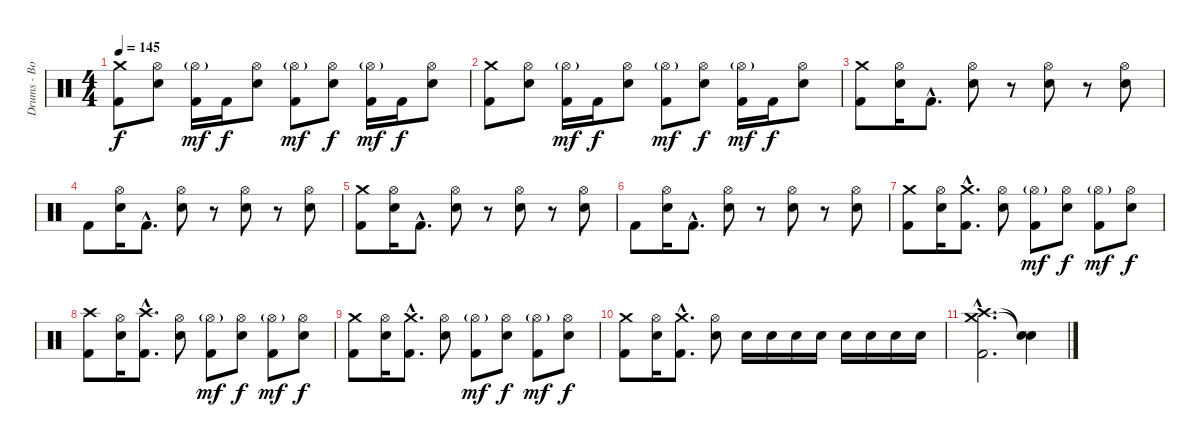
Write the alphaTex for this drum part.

\track ("Drums - Bobby Schayer" "Drums - Bo") {instrument percussion}
\staff {score}
\articulation defaults
\ts (4 4)
\tempo 145
\clef neutral
\ks c
("Crash medium (hit)" "Kick (hit) 2").8{dy f} ("Hi-Hat (open)" "Electric Snare (hit)").8 ("Hi-Hat (open)"{g} "Kick (hit) 2").16{dy mf} "Kick (hit) 2".16{dy f} ("Hi-Hat (open)" "Electric Snare (hit)").8 ("Hi-Hat (open)"{g} "Kick (hit) 2").8{dy mf} ("Hi-Hat (open)" "Electric Snare (hit)").8{dy f} ("Hi-Hat (open)"{g} "Kick (hit) 2").16{dy mf} "Kick (hit) 2".16{dy f} ("Hi-Hat (open)" "Electric Snare (hit)").8 |
("Crash medium (hit)" "Kick (hit) 2").8 ("Hi-Hat (open)" "Electric Snare (hit)").8 ("Hi-Hat (open)"{g} "Kick (hit) 2").16{dy mf} "Kick (hit) 2".16{dy f} ("Hi-Hat (open)" "Electric Snare (hit)").8 ("Hi-Hat (open)"{g} "Kick (hit) 2").8{dy mf} ("Hi-Hat (open)" "Electric Snare (hit)").8{dy f} ("Hi-Hat (open)"{g} "Kick (hit) 2").16{dy mf} "Kick (hit) 2".16{dy f} ("Hi-Hat (open)" "Electric Snare (hit)").8 |
("Crash medium (hit)" "Kick (hit) 2").8 ("Hi-Hat (open)" "Electric Snare (hit)").16 "Kick (hit) 2"{hac}.8{d} ("Hi-Hat (open)" "Electric Snare (hit)").8 r.8 ("Hi-Hat (open)" "Electric Snare (hit)").8 r.8 ("Hi-Hat (open)" "Electric Snare (hit)").8 |
"Kick (hit) 2".8 ("Hi-Hat (open)" "Electric Snare (hit)").16 "Kick (hit) 2"{hac}.8{d} ("Hi-Hat (open)" "Electric Snare (hit)").8 r.8 ("Hi-Hat (open)" "Electric Snare (hit)").8 r.8 ("Hi-Hat (open)" "Electric Snare (hit)").8 |
("Crash medium (hit)" "Kick (hit) 2").8 ("Hi-Hat (open)" "Electric Snare (hit)").16 "Kick (hit) 2"{hac}.8{d} ("Hi-Hat (open)" "Electric Snare (hit)").8 r.8 ("Hi-Hat (open)" "Electric Snare (hit)").8 r.8 ("Hi-Hat (open)" "Electric Snare (hit)").8 |
"Kick (hit) 2".8 ("Hi-Hat (open)" "Electric Snare (hit)").16 "Kick (hit) 2"{hac}.8{d} ("Hi-Hat (open)" "Electric Snare (hit)").8 r.8 ("Hi-Hat (open)" "Electric Snare (hit)").8 r.8 ("Hi-Hat (open)" "Electric Snare (hit)").8 |
("Crash medium (hit)" "Kick (hit) 2").8 ("Hi-Hat (open)" "Electric Snare (hit)").16 ("Crash medium (hit)"{hac} "Kick (hit) 2"{hac}).8{d} ("Hi-Hat (open)" "Electric Snare (hit)").8 ("Hi-Hat (open)"{g} "Kick (hit) 2").8{dy mf} ("Hi-Hat (open)" "Electric Snare (hit)").8{dy f} ("Hi-Hat (open)"{g} "Kick (hit) 2").8{dy mf} ("Hi-Hat (open)" "Electric Snare (hit)").8{dy f} |
("Crash high (hit)" "Kick (hit) 2").8 ("Hi-Hat (open)" "Electric Snare (hit)").16 ("Crash high (hit)"{hac} "Kick (hit) 2"{hac}).8{d} ("Hi-Hat (open)" "Electric Snare (hit)").8 ("Hi-Hat (open)"{g} "Kick (hit) 2").8{dy mf} ("Hi-Hat (open)" "Electric Snare (hit)").8{dy f} ("Hi-Hat (open)"{g} "Kick (hit) 2").8{dy mf} ("Hi-Hat (open)" "Electric Snare (hit)").8{dy f} |
("Crash medium (hit)" "Kick (hit) 2").8 ("Hi-Hat (open)" "Electric Snare (hit)").16 ("Crash medium (hit)"{hac} "Kick (hit) 2"{hac}).8{d} ("Hi-Hat (open)" "Electric Snare (hit)").8 ("Hi-Hat (open)"{g} "Kick (hit) 2").8{dy mf} ("Hi-Hat (open)" "Electric Snare (hit)").8{dy f} ("Hi-Hat (open)"{g} "Kick (hit) 2").8{dy mf} ("Hi-Hat (open)" "Electric Snare (hit)").8{dy f} |
("Crash medium (hit)" "Kick (hit) 2").8 ("Hi-Hat (open)" "Electric Snare (hit)").16 ("Crash medium (hit)"{hac} "Kick (hit) 2"{hac}).8{d} ("Hi-Hat (open)" "Electric Snare (hit)").8 "Electric Snare (hit)".16 "Electric Snare (hit)".16 "Electric Snare (hit)".16 "Electric Snare (hit)".16 "Electric Snare (hit)".16 "Electric Snare (hit)".16 "Electric Snare (hit)".16 "Electric Snare (hit)".16 |
("Crash high (hit)"{hac} "Crash medium (hit)"{hac} "Kick (hit) 2"{hac}).2{d} ("Snare (hit)"{t} "Snare (hit)"{t}).4
